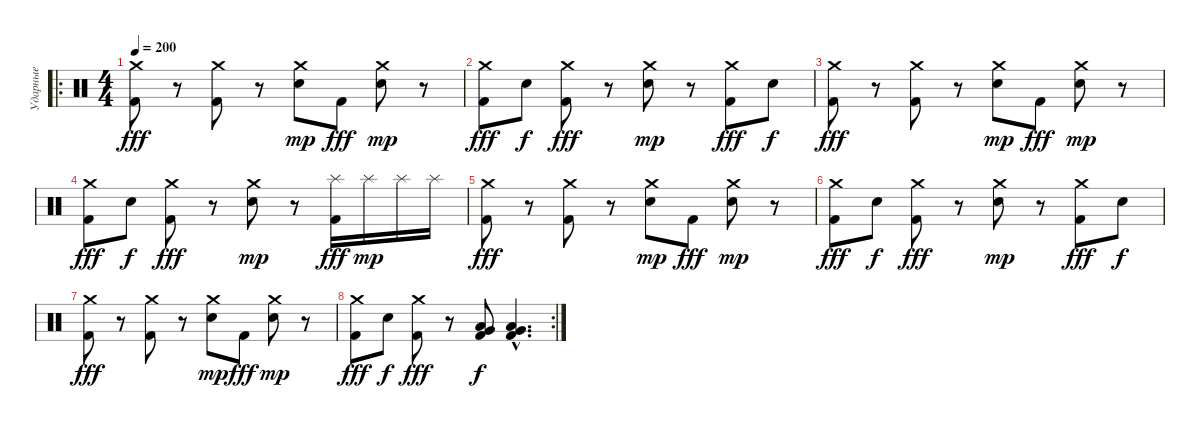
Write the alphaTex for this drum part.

\track ("Ударные" "Ударные") {instrument percussion}
\staff {score}
\articulation defaults
\ro
\ts (4 4)
\tempo 200
\clef neutral
\ks c
("Crash medium (hit)" "Kick (hit) 2").8{dy fff} r.8 ("Crash medium (hit)" "Kick (hit) 2").8 r.8 ("Crash medium (hit)" "Electric Snare (hit)").8{dy mp} "Kick (hit) 2".8{dy fff} ("Crash medium (hit)" "Electric Snare (hit)").8{dy mp} r.8 |
("Crash medium (hit)" "Kick (hit) 2").8{dy fff} "Electric Snare (hit)".8{dy f} ("Crash medium (hit)" "Kick (hit) 2").8{dy fff} r.8 ("Crash medium (hit)" "Electric Snare (hit)").8{dy mp} r.8 ("Crash medium (hit)" "Kick (hit) 2").8{dy fff} "Electric Snare (hit)".8{dy f} |
("Crash medium (hit)" "Kick (hit) 2").8{dy fff} r.8 ("Crash medium (hit)" "Kick (hit) 2").8 r.8 ("Crash medium (hit)" "Electric Snare (hit)").8{dy mp} "Kick (hit) 2".8{dy fff} ("Crash medium (hit)" "Electric Snare (hit)").8{dy mp} r.8 |
("Crash medium (hit)" "Kick (hit) 2").8{dy fff} "Electric Snare (hit)".8{dy f} ("Crash medium (hit)" "Kick (hit) 2").8{dy fff} r.8 ("Crash medium (hit)" "Electric Snare (hit)").8{dy mp} r.8 ("Splash (hit)" "Kick (hit) 2").16{dy fff} "Splash (hit)".16{dy mp} "Splash (hit)".16 "Splash (hit)".16 |
("Crash medium (hit)" "Kick (hit) 2").8{dy fff} r.8 ("Crash medium (hit)" "Kick (hit) 2").8 r.8 ("Crash medium (hit)" "Electric Snare (hit)").8{dy mp} "Kick (hit) 2".8{dy fff} ("Crash medium (hit)" "Electric Snare (hit)").8{dy mp} r.8 |
("Crash medium (hit)" "Kick (hit) 2").8{dy fff} "Electric Snare (hit)".8{dy f} ("Crash medium (hit)" "Kick (hit) 2").8{dy fff} r.8 ("Crash medium (hit)" "Electric Snare (hit)").8{dy mp} r.8 ("Crash medium (hit)" "Kick (hit) 2").8{dy fff} "Electric Snare (hit)".8{dy f} |
("Crash medium (hit)" "Kick (hit) 2").8{dy fff} r.8 ("Crash medium (hit)" "Kick (hit) 2").8 r.8 ("Crash medium (hit)" "Electric Snare (hit)").8{dy mp} "Kick (hit) 2".8{dy fff} ("Crash medium (hit)" "Electric Snare (hit)").8{dy mp} r.8 |
\rc 2
("Crash medium (hit)" "Kick (hit) 2").8{dy fff} "Electric Snare (hit)".8{dy f} ("Crash medium (hit)" "Kick (hit) 2").8{dy fff} r.8 ("Very Low Tom (hit)" "Low Floor Tom (hit)" "Kick (hit) 2").8{dy f} ("Very Low Tom (hit)"{hac} "Low Floor Tom (hit)"{hac} "Kick (hit) 2"{hac}).4{d}
